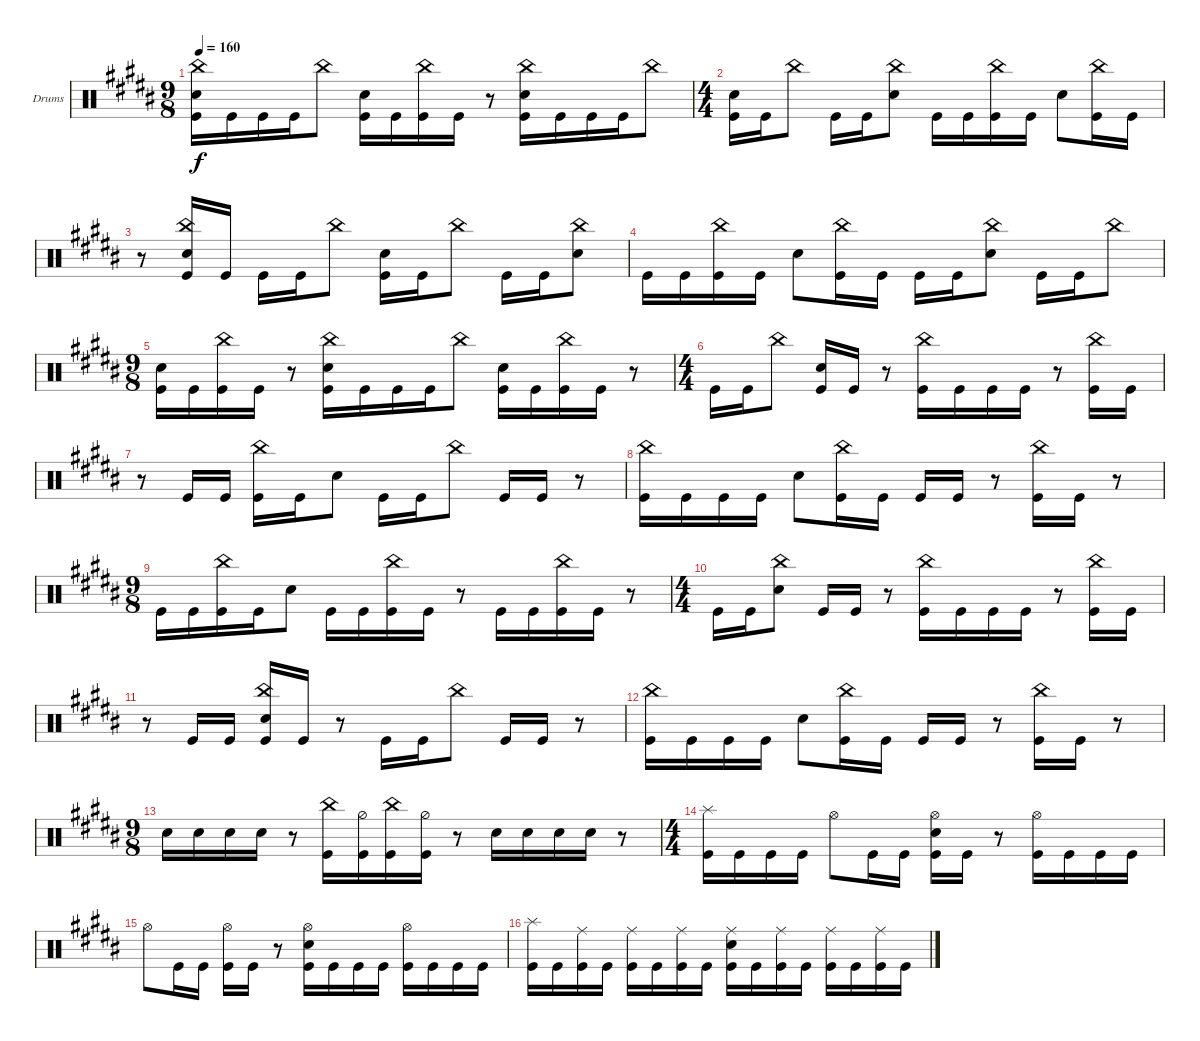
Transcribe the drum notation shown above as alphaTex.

\defaultSystemsLayout 4
\bracketExtendMode groupsimilarinstruments
\firstSystemTrackNameOrientation horizontal
\otherSystemsTrackNameOrientation horizontal
\track ("Drumkit" "Drums") {instrument percussion}
\staff {score}
\articulation defaults
\ts (9 8)
\tempo 160
\clef neutral
\scale
0.414925
\ks b
("Kick (hit)" "China (hit)" "Snare (hit) 2").16{dy f} "Kick (hit)".16 "Kick (hit)".16 "Kick (hit)".16 "China (hit)".8 ("Kick (hit)" "Snare (hit) 2").16 "Kick (hit)".16 ("Kick (hit)" "China (hit)").16 "Kick (hit)".16 r.8 ("Kick (hit)" "China (hit)" "Snare (hit) 2").16 "Kick (hit)".16 "Kick (hit)".16 "Kick (hit)".16 "China (hit)".8 |
\ts (4 4)
\scale
0.414925 ("Kick (hit)" "Snare (hit) 2").16 "Kick (hit)".16 "China (hit)".8 "Kick (hit)".16 "Kick (hit)".16 ("Snare (hit) 2" "China (hit)").8 "Kick (hit)".16 "Kick (hit)".16 ("Kick (hit)" "China (hit)").16 "Kick (hit)".16 "Snare (hit) 2".8 ("Kick (hit)" "China (hit)").16 "Kick (hit)".16 |
\scale
0.170149 r.8 ("Kick (hit)" "Snare (hit) 2" "China (hit)").16 "Kick (hit)".16 "Kick (hit)".16 "Kick (hit)".16 "China (hit)".8 ("Kick (hit)" "Snare (hit) 2").16 "Kick (hit)".16 "China (hit)".8 "Kick (hit)".16 "Kick (hit)".16 ("Snare (hit) 2" "China (hit)").8 |
\scale
0.170149 "Kick (hit)".16 "Kick (hit)".16 ("Kick (hit)" "China (hit)").16 "Kick (hit)".16 "Snare (hit) 2".8 ("Kick (hit)" "China (hit)").16 "Kick (hit)".16 "Kick (hit)".16 "Kick (hit)".16 ("Snare (hit) 2" "China (hit)").8 "Kick (hit)".16 "Kick (hit)".16 "China (hit)".8 |
\ts (9 8)
\scale
0.414925 ("Kick (hit)" "Snare (hit) 2").16 "Kick (hit)".16 ("Kick (hit)" "China (hit)").16 "Kick (hit)".16 r.8 ("Kick (hit)" "Snare (hit) 2" "China (hit)").16 "Kick (hit)".16 "Kick (hit)".16 "Kick (hit)".16 "China (hit)".8 ("Kick (hit)" "Snare (hit) 2").16 "Kick (hit)".16 ("Kick (hit)" "China (hit)").16 "Kick (hit)".16 r.8 |
\ts (4 4)
\scale
0.414925 "Kick (hit)".16 "Kick (hit)".16 "China (hit)".8 ("Kick (hit)" "Snare (hit) 2").16 "Kick (hit)".16 r.8 ("Kick (hit)" "China (hit)").16 "Kick (hit)".16 "Kick (hit)".16 "Kick (hit)".16 r.8 ("Kick (hit)" "China (hit)").16 "Kick (hit)".16 |
\scale
0.225296 r.8 "Kick (hit)".16 "Kick (hit)".16 ("Kick (hit)" "China (hit)").16 "Kick (hit)".16 "Snare (hit) 2".8 "Kick (hit)".16 "Kick (hit)".16 "China (hit)".8 "Kick (hit)".16 "Kick (hit)".16 r.8 |
\scale
0.225296 ("Kick (hit)" "China (hit)").16 "Kick (hit)".16 "Kick (hit)".16 "Kick (hit)".16 "Snare (hit) 2".8 ("Kick (hit)" "China (hit)").16 "Kick (hit)".16 "Kick (hit)".16 "Kick (hit)".16 r.8 ("Kick (hit)" "China (hit)").16 "Kick (hit)".16 r.8 |
\ts (9 8)
\scale
0.549407 "Kick (hit)".16 "Kick (hit)".16 ("Kick (hit)" "China (hit)").16 "Kick (hit)".16 "Snare (hit) 2".8 "Kick (hit)".16 "Kick (hit)".16 ("Kick (hit)" "China (hit)").16 "Kick (hit)".16 r.8 "Kick (hit)".16 "Kick (hit)".16 ("Kick (hit)" "China (hit)").16 "Kick (hit)".16 r.8 |
\ts (4 4)
\scale
0.549407 "Kick (hit)".16 "Kick (hit)".16 ("China (hit)" "Snare (hit) 2").8 "Kick (hit)".16 "Kick (hit)".16 r.8 ("Kick (hit)" "China (hit)").16 "Kick (hit)".16 "Kick (hit)".16 "Kick (hit)".16 r.8 ("Kick (hit)" "China (hit)").16 "Kick (hit)".16 |
\scale
0.225296 r.8 "Kick (hit)".16 "Kick (hit)".16 ("Kick (hit)" "China (hit)" "Snare (hit) 2").16 "Kick (hit)".16 r.8 "Kick (hit)".16 "Kick (hit)".16 "China (hit)".8 "Kick (hit)".16 "Kick (hit)".16 r.8 |
\scale
0.225296 ("Kick (hit)" "China (hit)").16 "Kick (hit)".16 "Kick (hit)".16 "Kick (hit)".16 "Snare (hit) 2".8 ("Kick (hit)" "China (hit)").16 "Kick (hit)".16 "Kick (hit)".16 "Kick (hit)".16 r.8 ("Kick (hit)" "China (hit)").16 "Kick (hit)".16 r.8 |
\ts (9 8)
\scale
0.414925 "Snare (hit) 2".16 "Snare (hit) 2".16 "Snare (hit) 2".16 "Snare (hit) 2".16 r.8 ("China (hit)" "Kick (hit)").16 ("Hi-Hat (half)" "Kick (hit)").16 ("China (hit)" "Kick (hit)").16 ("Hi-Hat (half)" "Kick (hit)").16 r.8 "Snare (hit) 2".16 "Snare (hit) 2".16 "Snare (hit) 2".16 "Snare (hit) 2".16 r.8 |
\ts (4 4)
\scale
0.414925 ("Kick (hit)" "Splash (hit)").16 "Kick (hit)".16 "Kick (hit)".16 "Kick (hit)".16 "Hi-Hat (open)".8 "Kick (hit)".16 "Kick (hit)".16 ("Kick (hit)" "Snare (hit) 2" "Hi-Hat (open)").16 "Kick (hit)".16 r.8 ("Kick (hit)" "Hi-Hat (open)").16 "Kick (hit)".16 "Kick (hit)".16 "Kick (hit)".16 |
\scale
0.170149 "Hi-Hat (open)".8 "Kick (hit)".16 "Kick (hit)".16 ("Kick (hit)" "Hi-Hat (open)").16 "Kick (hit)".16 r.8 ("Kick (hit)" "Snare (hit) 2" "Hi-Hat (open)").16 "Kick (hit)".16 "Kick (hit)".16 "Kick (hit)".16 ("Kick (hit)" "Hi-Hat (open)").16 "Kick (hit)".16 "Kick (hit)".16 "Kick (hit)".16 |
\scale
0.333333 ("Kick (hit)" "Splash (hit)").16 "Kick (hit)".16 ("Kick (hit)" "Ride (middle)").16 "Kick (hit)".16 ("Kick (hit)" "Ride (middle)").16 "Kick (hit)".16 ("Kick (hit)" "Ride (middle)").16 "Kick (hit)".16 ("Kick (hit)" "Snare (hit) 2" "Ride (middle)").16 "Kick (hit)".16 ("Kick (hit)" "Ride (middle)").16 "Kick (hit)".16 ("Kick (hit)" "Ride (middle)").16 "Kick (hit)".16 ("Kick (hit)" "Ride (middle)").16 "Kick (hit)".16
